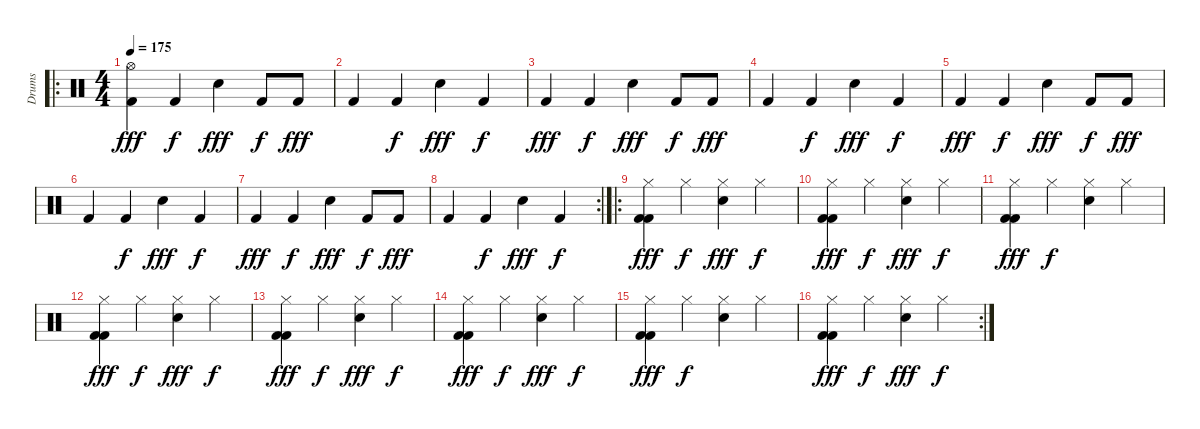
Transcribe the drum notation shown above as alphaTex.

\track ("Drums" "Drums") {instrument percussion}
\staff {score}
\articulation defaults
\ro
\ts (4 4)
\tempo 175
\clef neutral
\ks c
("Hi-Hat (open)" "Kick (hit) 2").4{dy fff} "Kick (hit) 2".4{dy f} "Snare (hit) 2".4{dy fff} "Kick (hit) 2".8{dy f} "Kick (hit) 2".8{dy fff} |
"Kick (hit) 2".4 "Kick (hit) 2".4{dy f} "Snare (hit) 2".4{dy fff} "Kick (hit) 2".4{dy f} |
"Kick (hit) 2".4{dy fff} "Kick (hit) 2".4{dy f} "Snare (hit) 2".4{dy fff} "Kick (hit) 2".8{dy f} "Kick (hit) 2".8{dy fff} |
"Kick (hit) 2".4 "Kick (hit) 2".4{dy f} "Snare (hit) 2".4{dy fff} "Kick (hit) 2".4{dy f} |
"Kick (hit) 2".4{dy fff} "Kick (hit) 2".4{dy f} "Snare (hit) 2".4{dy fff} "Kick (hit) 2".8{dy f} "Kick (hit) 2".8{dy fff} |
"Kick (hit) 2".4 "Kick (hit) 2".4{dy f} "Snare (hit) 2".4{dy fff} "Kick (hit) 2".4{dy f} |
"Kick (hit) 2".4{dy fff} "Kick (hit) 2".4{dy f} "Snare (hit) 2".4{dy fff} "Kick (hit) 2".8{dy f} "Kick (hit) 2".8{dy fff} |
\rc 2 "Kick (hit) 2".4 "Kick (hit) 2".4{dy f} "Snare (hit) 2".4{dy fff} "Kick (hit) 2".4{dy f}
|
\ro
("Hi-Hat (closed)" "Kick (hit) 2" "Kick (hit) 2").4{dy fff} "Hi-Hat (closed)".4{dy f} ("Hi-Hat (closed)" "Snare (hit) 2").4{dy fff} "Hi-Hat (closed)".4{dy f} |
("Hi-Hat (closed)" "Kick (hit) 2" "Kick (hit) 2").4{dy fff} "Hi-Hat (closed)".4{dy f} ("Hi-Hat (closed)" "Snare (hit) 2").4{dy fff} "Hi-Hat (closed)".4{dy f} |
("Hi-Hat (closed)" "Kick (hit) 2" "Kick (hit) 2").4{dy fff} "Hi-Hat (closed)".4{dy f} ("Hi-Hat (closed)" "Snare (hit) 2").4 "Hi-Hat (closed)".4 |
("Hi-Hat (closed)" "Kick (hit) 2" "Kick (hit) 2").4{dy fff} "Hi-Hat (closed)".4{dy f} ("Hi-Hat (closed)" "Snare (hit) 2").4{dy fff} "Hi-Hat (closed)".4{dy f} |
("Hi-Hat (closed)" "Kick (hit) 2" "Kick (hit) 2").4{dy fff} "Hi-Hat (closed)".4{dy f} ("Hi-Hat (closed)" "Snare (hit) 2").4{dy fff} "Hi-Hat (closed)".4{dy f} |
("Hi-Hat (closed)" "Kick (hit) 2" "Kick (hit) 2").4{dy fff} "Hi-Hat (closed)".4{dy f} ("Hi-Hat (closed)" "Snare (hit) 2").4{dy fff} "Hi-Hat (closed)".4{dy f} |
("Hi-Hat (closed)" "Kick (hit) 2" "Kick (hit) 2").4{dy fff} "Hi-Hat (closed)".4{dy f} ("Hi-Hat (closed)" "Snare (hit) 2").4 "Hi-Hat (closed)".4 |
\rc 2
("Hi-Hat (closed)" "Kick (hit) 2" "Kick (hit) 2").4{dy fff} "Hi-Hat (closed)".4{dy f} ("Hi-Hat (closed)" "Snare (hit) 2").4{dy fff} "Hi-Hat (closed)".4{dy f}
